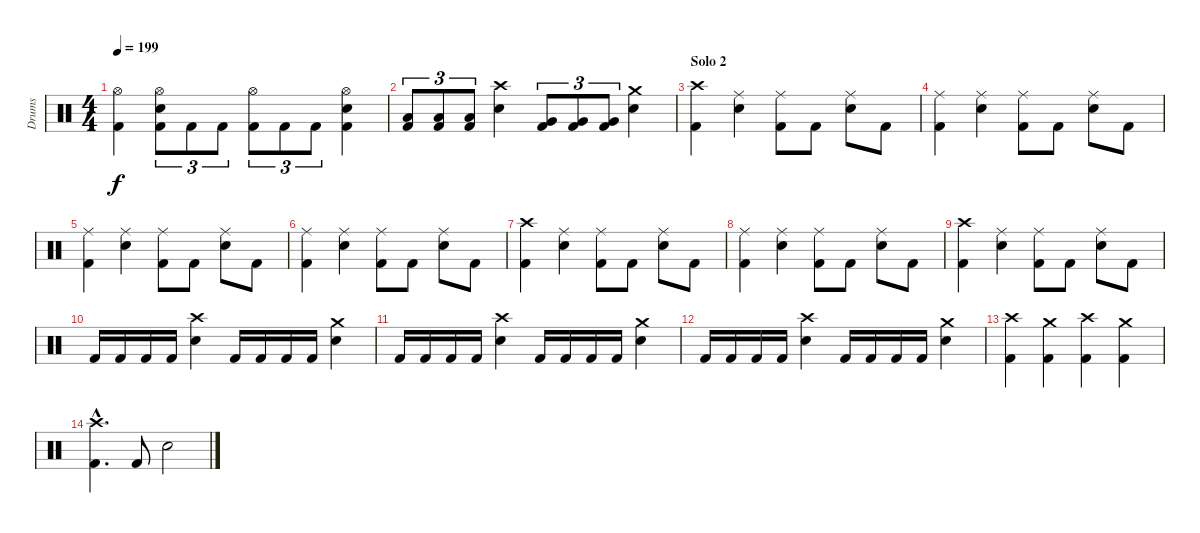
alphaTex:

\track ("Drums" "Drums") {instrument percussion}
\staff {score}
\articulation defaults
\ts (4 4)
\tempo 199
\clef neutral
\ks c
("Hi-Hat (open)" "Kick (hit) 2").4{dy f} ("Hi-Hat (open)" "Electric Snare (hit)" "Kick (hit) 2").8{tu (3 2)} "Kick (hit) 2".8{tu (3 2)} "Kick (hit) 2".8{tu (3 2)} ("Hi-Hat (open)" "Kick (hit) 2").8{tu (3 2)} "Kick (hit) 2".8{tu (3 2)} "Kick (hit) 2".8{tu (3 2)} ("Hi-Hat (open)" "Electric Snare (hit)" "Kick (hit) 2").4 |
("Low Tom (hit)" "Kick (hit) 2").8{tu (3 2)} ("Low Tom (hit)" "Kick (hit) 2").8{tu (3 2)} ("Low Tom (hit)" "Kick (hit) 2").8{tu (3 2)} ("Crash high (hit)" "Electric Snare (hit)").4 ("Very Low Tom (hit)" "Kick (hit) 2").8{tu (3 2)} ("Very Low Tom (hit)" "Kick (hit) 2").8{tu (3 2)} ("Very Low Tom (hit)" "Kick (hit) 2").8{tu (3 2)} ("Crash medium (hit)" "Electric Snare (hit)").4 |
\section ("" "Solo 2")
("Crash high (hit)" "Kick (hit) 2").4 ("Ride (middle)" "Electric Snare (hit)").4 ("Ride (middle)" "Kick (hit) 2").8 "Kick (hit) 2".8 ("Ride (middle)" "Electric Snare (hit)").8 "Kick (hit) 2".8 |
("Ride (middle)" "Kick (hit) 2").4 ("Ride (middle)" "Electric Snare (hit)").4 ("Ride (middle)" "Kick (hit) 2").8 "Kick (hit) 2".8 ("Ride (middle)" "Electric Snare (hit)").8 "Kick (hit) 2".8 |
("Ride (middle)" "Kick (hit) 2").4 ("Ride (middle)" "Electric Snare (hit)").4 ("Ride (middle)" "Kick (hit) 2").8 "Kick (hit) 2".8 ("Ride (middle)" "Electric Snare (hit)").8 "Kick (hit) 2".8 |
("Ride (middle)" "Kick (hit) 2").4 ("Ride (middle)" "Electric Snare (hit)").4 ("Ride (middle)" "Kick (hit) 2").8 "Kick (hit) 2".8 ("Ride (middle)" "Electric Snare (hit)").8 "Kick (hit) 2".8 |
("Crash high (hit)" "Kick (hit) 2").4 ("Ride (middle)" "Electric Snare (hit)").4 ("Ride (middle)" "Kick (hit) 2").8 "Kick (hit) 2".8 ("Ride (middle)" "Electric Snare (hit)").8 "Kick (hit) 2".8 |
("Ride (middle)" "Kick (hit) 2").4 ("Ride (middle)" "Electric Snare (hit)").4 ("Ride (middle)" "Kick (hit) 2").8 "Kick (hit) 2".8 ("Ride (middle)" "Electric Snare (hit)").8 "Kick (hit) 2".8 |
("Crash high (hit)" "Kick (hit) 2").4 ("Ride (middle)" "Electric Snare (hit)").4 ("Ride (middle)" "Kick (hit) 2").8 "Kick (hit) 2".8 ("Ride (middle)" "Electric Snare (hit)").8 "Kick (hit) 2".8 |
"Kick (hit) 2".16 "Kick (hit) 2".16 "Kick (hit) 2".16 "Kick (hit) 2".16 ("Crash high (hit)" "Electric Snare (hit)").4 "Kick (hit) 2".16 "Kick (hit) 2".16 "Kick (hit) 2".16 "Kick (hit) 2".16 ("Crash medium (hit)" "Electric Snare (hit)").4 |
"Kick (hit) 2".16 "Kick (hit) 2".16 "Kick (hit) 2".16 "Kick (hit) 2".16 ("Crash high (hit)" "Electric Snare (hit)").4 "Kick (hit) 2".16 "Kick (hit) 2".16 "Kick (hit) 2".16 "Kick (hit) 2".16 ("Crash medium (hit)" "Electric Snare (hit)").4 |
"Kick (hit) 2".16 "Kick (hit) 2".16 "Kick (hit) 2".16 "Kick (hit) 2".16 ("Crash high (hit)" "Electric Snare (hit)").4 "Kick (hit) 2".16 "Kick (hit) 2".16 "Kick (hit) 2".16 "Kick (hit) 2".16 ("Crash medium (hit)" "Electric Snare (hit)").4 |
("Crash high (hit)" "Kick (hit) 2").4 ("Crash medium (hit)" "Kick (hit) 2").4 ("Crash high (hit)" "Kick (hit) 2").4 ("Crash medium (hit)" "Kick (hit) 2").4 |
("Crash high (hit)"{hac} "Kick (hit) 2"{hac}).4{d} "Kick (hit) 2".8 "Electric Snare (hit)".2
